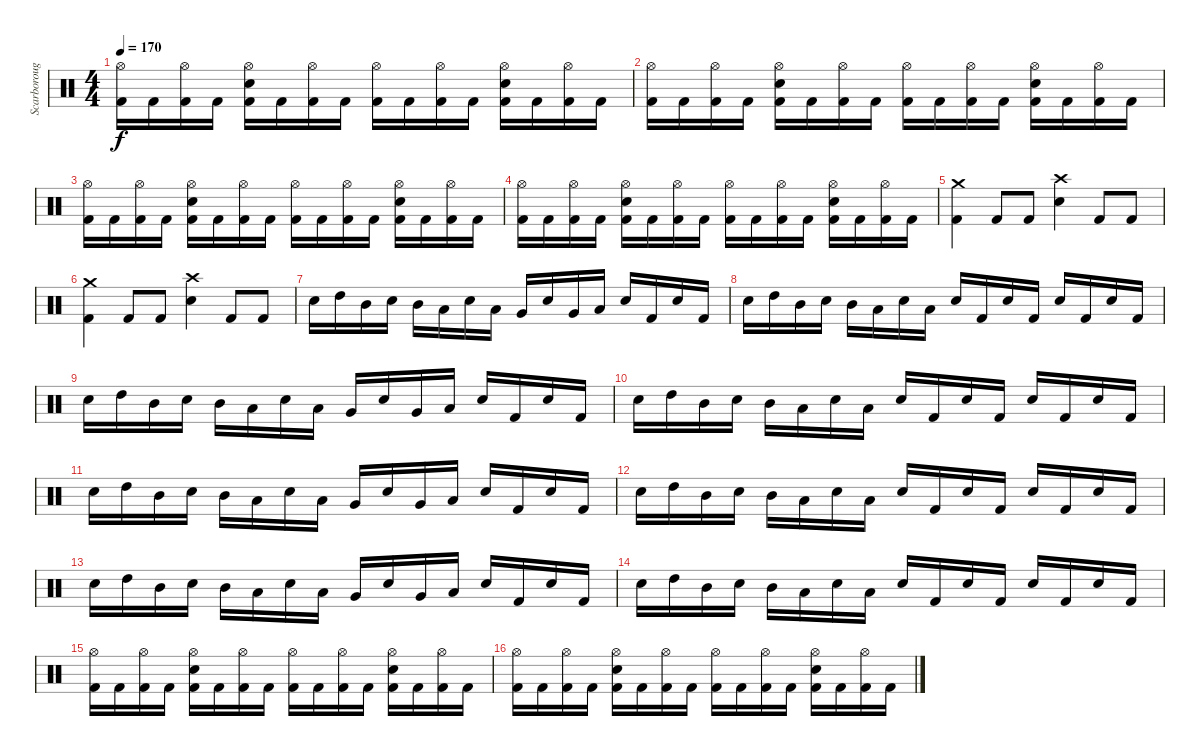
\track ("Scarborough" "Scarboroug") {instrument percussion}
\staff {score}
\articulation defaults
\ts (4 4)
\tempo 170
\clef neutral
\ks c
("Hi-Hat (open)" "Kick (hit) 2").16{dy f} "Kick (hit) 2".16 ("Hi-Hat (open)" "Kick (hit) 2").16 "Kick (hit) 2".16 ("Hi-Hat (open)" "Kick (hit) 2" "Snare (hit) 2").16 "Kick (hit) 2".16 ("Hi-Hat (open)" "Kick (hit) 2").16 "Kick (hit) 2".16 ("Hi-Hat (open)" "Kick (hit) 2").16 "Kick (hit) 2".16 ("Hi-Hat (open)" "Kick (hit) 2").16 "Kick (hit) 2".16 ("Hi-Hat (open)" "Kick (hit) 2" "Snare (hit) 2").16 "Kick (hit) 2".16 ("Hi-Hat (open)" "Kick (hit) 2").16 "Kick (hit) 2".16 |
("Hi-Hat (open)" "Kick (hit) 2").16 "Kick (hit) 2".16 ("Hi-Hat (open)" "Kick (hit) 2").16 "Kick (hit) 2".16 ("Hi-Hat (open)" "Kick (hit) 2" "Snare (hit) 2").16 "Kick (hit) 2".16 ("Hi-Hat (open)" "Kick (hit) 2").16 "Kick (hit) 2".16 ("Hi-Hat (open)" "Kick (hit) 2").16 "Kick (hit) 2".16 ("Hi-Hat (open)" "Kick (hit) 2").16 "Kick (hit) 2".16 ("Hi-Hat (open)" "Kick (hit) 2" "Snare (hit) 2").16 "Kick (hit) 2".16 ("Hi-Hat (open)" "Kick (hit) 2").16 "Kick (hit) 2".16 |
("Hi-Hat (open)" "Kick (hit) 2").16 "Kick (hit) 2".16 ("Hi-Hat (open)" "Kick (hit) 2").16 "Kick (hit) 2".16 ("Hi-Hat (open)" "Kick (hit) 2" "Snare (hit) 2").16 "Kick (hit) 2".16 ("Hi-Hat (open)" "Kick (hit) 2").16 "Kick (hit) 2".16 ("Hi-Hat (open)" "Kick (hit) 2").16 "Kick (hit) 2".16 ("Hi-Hat (open)" "Kick (hit) 2").16 "Kick (hit) 2".16 ("Hi-Hat (open)" "Kick (hit) 2" "Snare (hit) 2").16 "Kick (hit) 2".16 ("Hi-Hat (open)" "Kick (hit) 2").16 "Kick (hit) 2".16 |
("Hi-Hat (open)" "Kick (hit) 2").16 "Kick (hit) 2".16 ("Hi-Hat (open)" "Kick (hit) 2").16 "Kick (hit) 2".16 ("Hi-Hat (open)" "Kick (hit) 2" "Snare (hit) 2").16 "Kick (hit) 2".16 ("Hi-Hat (open)" "Kick (hit) 2").16 "Kick (hit) 2".16 ("Hi-Hat (open)" "Kick (hit) 2").16 "Kick (hit) 2".16 ("Hi-Hat (open)" "Kick (hit) 2").16 "Kick (hit) 2".16 ("Hi-Hat (open)" "Kick (hit) 2" "Snare (hit) 2").16 "Kick (hit) 2".16 ("Hi-Hat (open)" "Kick (hit) 2").16 "Kick (hit) 2".16 |
("Crash medium (hit)" "Kick (hit) 2").4 "Kick (hit) 2".8 "Kick (hit) 2".8 ("Crash high (hit)" "Snare (hit) 2").4 "Kick (hit) 2".8 "Kick (hit) 2".8 |
("Crash medium (hit)" "Kick (hit) 2").4 "Kick (hit) 2".8 "Kick (hit) 2".8 ("Crash high (hit)" "Snare (hit) 2").4 "Kick (hit) 2".8 "Kick (hit) 2".8 |
"Snare (hit) 2".16 "High Tom (hit)".16 "Mid Tom (hit)".16 "Snare (hit) 2".16 "Mid Tom (hit)".16 "Low Tom (hit)".16 "Snare (hit) 2".16 "Low Tom (hit)".16 "Very Low Tom (hit)".16 "Snare (hit) 2".16 "Very Low Tom (hit)".16 "Low Floor Tom (hit)".16 "Snare (hit) 2".16 "Kick (hit) 2".16 "Snare (hit) 2".16 "Kick (hit) 2".16 |
"Snare (hit) 2".16 "High Tom (hit)".16 "Mid Tom (hit)".16 "Snare (hit) 2".16 "Mid Tom (hit)".16 "Low Tom (hit)".16 "Snare (hit) 2".16 "Low Tom (hit)".16 "Snare (hit) 2".16 "Kick (hit) 2".16 "Snare (hit) 2".16 "Kick (hit) 2".16 "Snare (hit) 2".16 "Kick (hit) 2".16 "Snare (hit) 2".16 "Kick (hit) 2".16 |
"Snare (hit) 2".16 "High Tom (hit)".16 "Mid Tom (hit)".16 "Snare (hit) 2".16 "Mid Tom (hit)".16 "Low Tom (hit)".16 "Snare (hit) 2".16 "Low Tom (hit)".16 "Very Low Tom (hit)".16 "Snare (hit) 2".16 "Very Low Tom (hit)".16 "Low Floor Tom (hit)".16 "Snare (hit) 2".16 "Kick (hit) 2".16 "Snare (hit) 2".16 "Kick (hit) 2".16 |
"Snare (hit) 2".16 "High Tom (hit)".16 "Mid Tom (hit)".16 "Snare (hit) 2".16 "Mid Tom (hit)".16 "Low Tom (hit)".16 "Snare (hit) 2".16 "Low Tom (hit)".16 "Snare (hit) 2".16 "Kick (hit) 2".16 "Snare (hit) 2".16 "Kick (hit) 2".16 "Snare (hit) 2".16 "Kick (hit) 2".16 "Snare (hit) 2".16 "Kick (hit) 2".16 |
"Snare (hit) 2".16 "High Tom (hit)".16 "Mid Tom (hit)".16 "Snare (hit) 2".16 "Mid Tom (hit)".16 "Low Tom (hit)".16 "Snare (hit) 2".16 "Low Tom (hit)".16 "Very Low Tom (hit)".16 "Snare (hit) 2".16 "Very Low Tom (hit)".16 "Low Floor Tom (hit)".16 "Snare (hit) 2".16 "Kick (hit) 2".16 "Snare (hit) 2".16 "Kick (hit) 2".16 |
"Snare (hit) 2".16 "High Tom (hit)".16 "Mid Tom (hit)".16 "Snare (hit) 2".16 "Mid Tom (hit)".16 "Low Tom (hit)".16 "Snare (hit) 2".16 "Low Tom (hit)".16 "Snare (hit) 2".16 "Kick (hit) 2".16 "Snare (hit) 2".16 "Kick (hit) 2".16 "Snare (hit) 2".16 "Kick (hit) 2".16 "Snare (hit) 2".16 "Kick (hit) 2".16 |
"Snare (hit) 2".16 "High Tom (hit)".16 "Mid Tom (hit)".16 "Snare (hit) 2".16 "Mid Tom (hit)".16 "Low Tom (hit)".16 "Snare (hit) 2".16 "Low Tom (hit)".16 "Very Low Tom (hit)".16 "Snare (hit) 2".16 "Very Low Tom (hit)".16 "Low Floor Tom (hit)".16 "Snare (hit) 2".16 "Kick (hit) 2".16 "Snare (hit) 2".16 "Kick (hit) 2".16 |
"Snare (hit) 2".16 "High Tom (hit)".16 "Mid Tom (hit)".16 "Snare (hit) 2".16 "Mid Tom (hit)".16 "Low Tom (hit)".16 "Snare (hit) 2".16 "Low Tom (hit)".16 "Snare (hit) 2".16 "Kick (hit) 2".16 "Snare (hit) 2".16 "Kick (hit) 2".16 "Snare (hit) 2".16 "Kick (hit) 2".16 "Snare (hit) 2".16 "Kick (hit) 2".16 |
("Hi-Hat (open)" "Kick (hit) 2").16 "Kick (hit) 2".16 ("Hi-Hat (open)" "Kick (hit) 2").16 "Kick (hit) 2".16 ("Hi-Hat (open)" "Kick (hit) 2" "Snare (hit) 2").16 "Kick (hit) 2".16 ("Hi-Hat (open)" "Kick (hit) 2").16 "Kick (hit) 2".16 ("Hi-Hat (open)" "Kick (hit) 2").16 "Kick (hit) 2".16 ("Hi-Hat (open)" "Kick (hit) 2").16 "Kick (hit) 2".16 ("Hi-Hat (open)" "Kick (hit) 2" "Snare (hit) 2").16 "Kick (hit) 2".16 ("Hi-Hat (open)" "Kick (hit) 2").16 "Kick (hit) 2".16 |
("Hi-Hat (open)" "Kick (hit) 2").16 "Kick (hit) 2".16 ("Hi-Hat (open)" "Kick (hit) 2").16 "Kick (hit) 2".16 ("Hi-Hat (open)" "Kick (hit) 2" "Snare (hit) 2").16 "Kick (hit) 2".16 ("Hi-Hat (open)" "Kick (hit) 2").16 "Kick (hit) 2".16 ("Hi-Hat (open)" "Kick (hit) 2").16 "Kick (hit) 2".16 ("Hi-Hat (open)" "Kick (hit) 2").16 "Kick (hit) 2".16 ("Hi-Hat (open)" "Kick (hit) 2" "Snare (hit) 2").16 "Kick (hit) 2".16 ("Hi-Hat (open)" "Kick (hit) 2").16 "Kick (hit) 2".16
